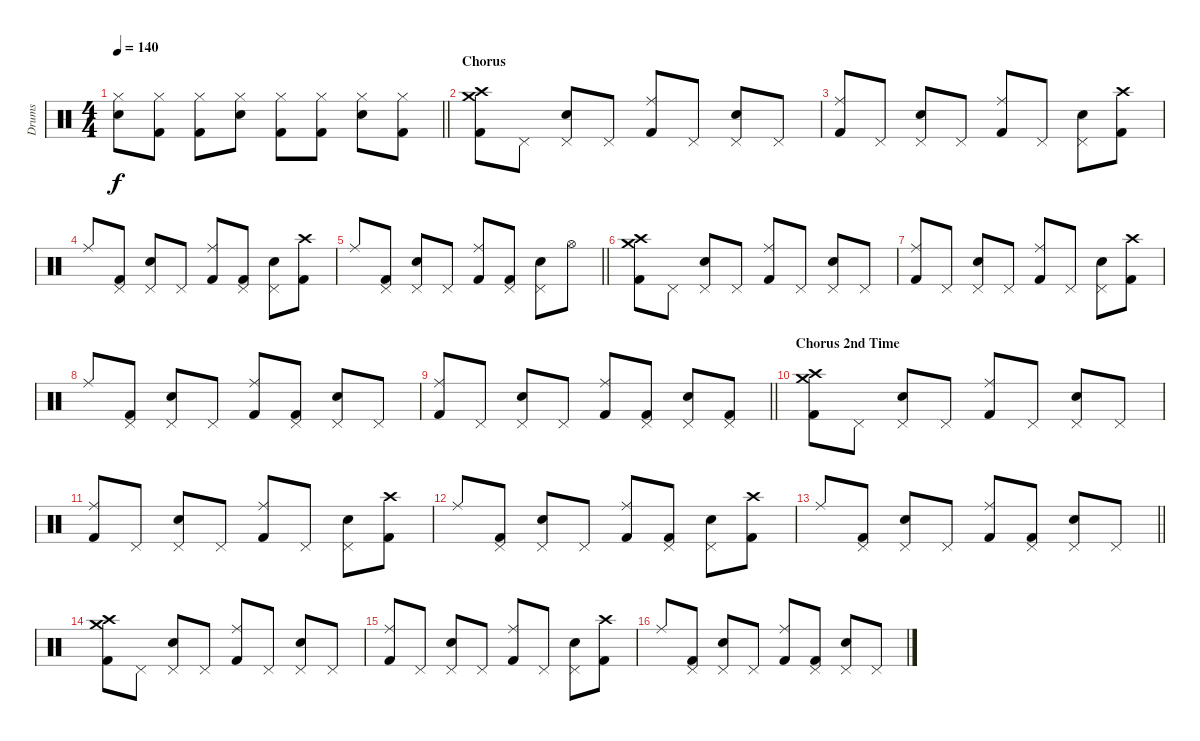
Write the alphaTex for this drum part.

\track ("Drums" "Drums") {instrument percussion}
\staff {score}
\articulation defaults
\ts (4 4)
\tempo 140
\clef neutral
\barLineRight lightlight
\ks c
("Hi-Hat (closed)" "Snare (hit) 2").8{dy f} ("Hi-Hat (closed)" "Kick (hit) 2").8 ("Hi-Hat (closed)" "Kick (hit) 2").8 ("Hi-Hat (closed)" "Snare (hit) 2").8 ("Hi-Hat (closed)" "Kick (hit) 2").8 ("Hi-Hat (closed)" "Kick (hit) 2").8 ("Hi-Hat (closed)" "Snare (hit) 2").8 ("Hi-Hat (closed)" "Kick (hit) 2").8 |
\section ("" "Chorus")
("Crash medium (hit)" "Crash high (hit)" "Kick (hit) 2").8 "Pedal Hi-Hat (hit)".8 ("Pedal Hi-Hat (hit)" "Snare (hit) 2").8 "Pedal Hi-Hat (hit)".8 ("Ride (middle)" "Kick (hit) 2").8 "Pedal Hi-Hat (hit)".8 ("Pedal Hi-Hat (hit)" "Snare (hit) 2").8 "Pedal Hi-Hat (hit)".8 |
("Ride (middle)" "Kick (hit) 2").8 "Pedal Hi-Hat (hit)".8 ("Pedal Hi-Hat (hit)" "Snare (hit) 2").8 "Pedal Hi-Hat (hit)".8 ("Ride (middle)" "Kick (hit) 2").8 "Pedal Hi-Hat (hit)".8 ("Pedal Hi-Hat (hit)" "Snare (hit) 2").8 ("Crash high (hit)" "Kick (hit) 2").8 |
"Ride (middle)".8 ("Pedal Hi-Hat (hit)" "Kick (hit) 2").8 ("Pedal Hi-Hat (hit)" "Snare (hit) 2").8 "Pedal Hi-Hat (hit)".8 ("Ride (middle)" "Kick (hit) 2").8 ("Pedal Hi-Hat (hit)" "Kick (hit) 2").8 ("Pedal Hi-Hat (hit)" "Snare (hit) 2").8 ("Crash high (hit)" "Kick (hit) 2").8 |
\barLineRight lightlight "Ride (middle)".8
("Pedal Hi-Hat (hit)" "Kick (hit) 2").8 ("Pedal Hi-Hat (hit)" "Snare (hit) 2").8 "Pedal Hi-Hat (hit)".8 ("Ride (middle)" "Kick (hit) 2").8 ("Pedal Hi-Hat (hit)" "Kick (hit) 2").8 ("Pedal Hi-Hat (hit)" "Snare (hit) 2").8 "Hi-Hat (open)".8 |
("Crash medium (hit)" "Crash high (hit)" "Kick (hit) 2").8 "Pedal Hi-Hat (hit)".8 ("Pedal Hi-Hat (hit)" "Snare (hit) 2").8 "Pedal Hi-Hat (hit)".8 ("Ride (middle)" "Kick (hit) 2").8 "Pedal Hi-Hat (hit)".8 ("Pedal Hi-Hat (hit)" "Snare (hit) 2").8 "Pedal Hi-Hat (hit)".8 |
("Ride (middle)" "Kick (hit) 2").8 "Pedal Hi-Hat (hit)".8 ("Pedal Hi-Hat (hit)" "Snare (hit) 2").8 "Pedal Hi-Hat (hit)".8 ("Ride (middle)" "Kick (hit) 2").8 "Pedal Hi-Hat (hit)".8 ("Pedal Hi-Hat (hit)" "Snare (hit) 2").8 ("Crash high (hit)" "Kick (hit) 2").8 |
"Ride (middle)".8 ("Pedal Hi-Hat (hit)" "Kick (hit) 2").8 ("Pedal Hi-Hat (hit)" "Snare (hit) 2").8 "Pedal Hi-Hat (hit)".8 ("Ride (middle)" "Kick (hit) 2").8 ("Pedal Hi-Hat (hit)" "Kick (hit) 2").8 ("Pedal Hi-Hat (hit)" "Snare (hit) 2").8 "Pedal Hi-Hat (hit)".8 |
\barLineRight lightlight
("Ride (middle)" "Kick (hit) 2").8 "Pedal Hi-Hat (hit)".8 ("Pedal Hi-Hat (hit)" "Snare (hit) 2").8 "Pedal Hi-Hat (hit)".8 ("Ride (middle)" "Kick (hit) 2").8 ("Pedal Hi-Hat (hit)" "Kick (hit) 2").8 ("Pedal Hi-Hat (hit)" "Snare (hit) 2").8 ("Pedal Hi-Hat (hit)" "Kick (hit) 2").8 |
\section ("" "Chorus 2nd Time")
("Crash medium (hit)" "Crash high (hit)" "Kick (hit) 2").8 "Pedal Hi-Hat (hit)".8 ("Pedal Hi-Hat (hit)" "Snare (hit) 2").8 "Pedal Hi-Hat (hit)".8 ("Ride (middle)" "Kick (hit) 2").8 "Pedal Hi-Hat (hit)".8 ("Pedal Hi-Hat (hit)" "Snare (hit) 2").8 "Pedal Hi-Hat (hit)".8 |
("Ride (middle)" "Kick (hit) 2").8 "Pedal Hi-Hat (hit)".8 ("Pedal Hi-Hat (hit)" "Snare (hit) 2").8 "Pedal Hi-Hat (hit)".8 ("Ride (middle)" "Kick (hit) 2").8 "Pedal Hi-Hat (hit)".8 ("Pedal Hi-Hat (hit)" "Snare (hit) 2").8 ("Crash high (hit)" "Kick (hit) 2").8 |
"Ride (middle)".8 ("Pedal Hi-Hat (hit)" "Kick (hit) 2").8 ("Pedal Hi-Hat (hit)" "Snare (hit) 2").8 "Pedal Hi-Hat (hit)".8 ("Ride (middle)" "Kick (hit) 2").8 ("Pedal Hi-Hat (hit)" "Kick (hit) 2").8 ("Pedal Hi-Hat (hit)" "Snare (hit) 2").8 ("Crash high (hit)" "Kick (hit) 2").8 |
\barLineRight lightlight "Ride (middle)".8
("Pedal Hi-Hat (hit)" "Kick (hit) 2").8 ("Pedal Hi-Hat (hit)" "Snare (hit) 2").8 "Pedal Hi-Hat (hit)".8 ("Ride (middle)" "Kick (hit) 2").8 ("Pedal Hi-Hat (hit)" "Kick (hit) 2").8 ("Pedal Hi-Hat (hit)" "Snare (hit) 2").8 "Pedal Hi-Hat (hit)".8 |
("Crash medium (hit)" "Crash high (hit)" "Kick (hit) 2").8 "Pedal Hi-Hat (hit)".8 ("Pedal Hi-Hat (hit)" "Snare (hit) 2").8 "Pedal Hi-Hat (hit)".8 ("Ride (middle)" "Kick (hit) 2").8 "Pedal Hi-Hat (hit)".8 ("Pedal Hi-Hat (hit)" "Snare (hit) 2").8 "Pedal Hi-Hat (hit)".8 |
("Ride (middle)" "Kick (hit) 2").8 "Pedal Hi-Hat (hit)".8 ("Pedal Hi-Hat (hit)" "Snare (hit) 2").8 "Pedal Hi-Hat (hit)".8 ("Ride (middle)" "Kick (hit) 2").8 "Pedal Hi-Hat (hit)".8 ("Pedal Hi-Hat (hit)" "Snare (hit) 2").8 ("Crash high (hit)" "Kick (hit) 2").8 |
"Ride (middle)".8 ("Pedal Hi-Hat (hit)" "Kick (hit) 2").8 ("Pedal Hi-Hat (hit)" "Snare (hit) 2").8 "Pedal Hi-Hat (hit)".8 ("Ride (middle)" "Kick (hit) 2").8 ("Pedal Hi-Hat (hit)" "Kick (hit) 2").8 ("Pedal Hi-Hat (hit)" "Snare (hit) 2").8 "Pedal Hi-Hat (hit)".8
